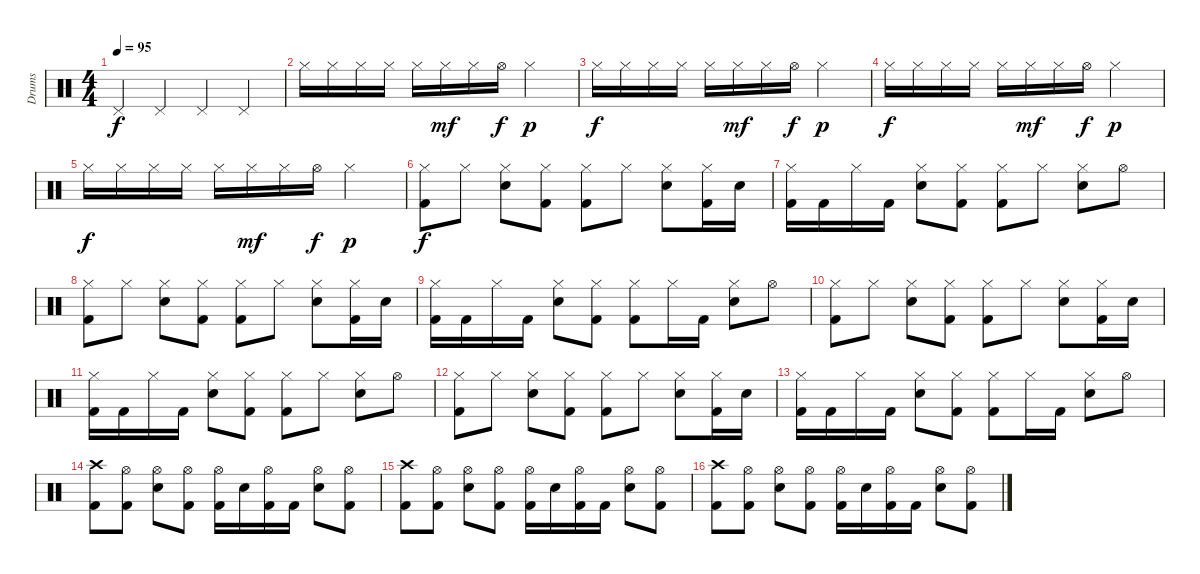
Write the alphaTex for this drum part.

\track ("Drums" "Drums") {instrument percussion}
\staff {score}
\articulation defaults
\ts (4 4)
\tempo 95
\clef neutral
\ks c "Pedal Hi-Hat (hit)".4{dy f} "Pedal Hi-Hat (hit)".4 "Pedal Hi-Hat (hit)".4 "Pedal Hi-Hat (hit)".4
|
"Hi-Hat (closed)".16 "Hi-Hat (closed)".16 "Hi-Hat (closed)".16 "Hi-Hat (closed)".16 "Hi-Hat (closed)".16 "Hi-Hat (closed)".16{dy mf} "Hi-Hat (closed)".16 "Hi-Hat (open)".16{dy f} "Hi-Hat (closed)".2{dy p} |
"Hi-Hat (closed)".16{dy f} "Hi-Hat (closed)".16 "Hi-Hat (closed)".16 "Hi-Hat (closed)".16 "Hi-Hat (closed)".16 "Hi-Hat (closed)".16{dy mf} "Hi-Hat (closed)".16 "Hi-Hat (open)".16{dy f} "Hi-Hat (closed)".2{dy p} |
"Hi-Hat (closed)".16{dy f} "Hi-Hat (closed)".16 "Hi-Hat (closed)".16 "Hi-Hat (closed)".16 "Hi-Hat (closed)".16 "Hi-Hat (closed)".16{dy mf} "Hi-Hat (closed)".16 "Hi-Hat (open)".16{dy f} "Hi-Hat (closed)".2{dy p} |
"Hi-Hat (closed)".16{dy f} "Hi-Hat (closed)".16 "Hi-Hat (closed)".16 "Hi-Hat (closed)".16 "Hi-Hat (closed)".16 "Hi-Hat (closed)".16{dy mf} "Hi-Hat (closed)".16 "Hi-Hat (open)".16{dy f} "Hi-Hat (closed)".2{dy p} |
("Hi-Hat (closed)" "Kick (hit) 2").8{dy f} "Hi-Hat (closed)".8 ("Hi-Hat (closed)" "Electric Snare (hit)").8 ("Hi-Hat (closed)" "Kick (hit) 2").8 ("Hi-Hat (closed)" "Kick (hit) 2").8 "Hi-Hat (closed)".8 ("Hi-Hat (closed)" "Electric Snare (hit)").8 ("Hi-Hat (closed)" "Kick (hit) 2").16 "Electric Snare (hit)".16 |
("Hi-Hat (closed)" "Kick (hit) 2").16 "Kick (hit) 2".16 "Hi-Hat (closed)".16 "Kick (hit) 2".16 ("Hi-Hat (closed)" "Electric Snare (hit)").8 ("Hi-Hat (closed)" "Kick (hit) 2").8 ("Hi-Hat (closed)" "Kick (hit) 2").8 "Hi-Hat (closed)".8 ("Hi-Hat (closed)" "Electric Snare (hit)").8 "Hi-Hat (open)".8 |
("Hi-Hat (closed)" "Kick (hit) 2").8 "Hi-Hat (closed)".8 ("Hi-Hat (closed)" "Electric Snare (hit)").8 ("Hi-Hat (closed)" "Kick (hit) 2").8 ("Hi-Hat (closed)" "Kick (hit) 2").8 "Hi-Hat (closed)".8 ("Hi-Hat (closed)" "Electric Snare (hit)").8 ("Hi-Hat (closed)" "Kick (hit) 2").16 "Electric Snare (hit)".16 |
("Hi-Hat (closed)" "Kick (hit) 2").16 "Kick (hit) 2".16 "Hi-Hat (closed)".16 "Kick (hit) 2".16 ("Hi-Hat (closed)" "Electric Snare (hit)").8 ("Hi-Hat (closed)" "Kick (hit) 2").8 ("Hi-Hat (closed)" "Kick (hit) 2").8 "Hi-Hat (closed)".16 "Kick (hit) 2".16 ("Hi-Hat (closed)" "Electric Snare (hit)").8 "Hi-Hat (open)".8 |
("Hi-Hat (closed)" "Kick (hit) 2").8 "Hi-Hat (closed)".8 ("Hi-Hat (closed)" "Electric Snare (hit)").8 ("Hi-Hat (closed)" "Kick (hit) 2").8 ("Hi-Hat (closed)" "Kick (hit) 2").8 "Hi-Hat (closed)".8 ("Hi-Hat (closed)" "Electric Snare (hit)").8 ("Hi-Hat (closed)" "Kick (hit) 2").16 "Electric Snare (hit)".16 |
("Hi-Hat (closed)" "Kick (hit) 2").16 "Kick (hit) 2".16 "Hi-Hat (closed)".16 "Kick (hit) 2".16 ("Hi-Hat (closed)" "Electric Snare (hit)").8 ("Hi-Hat (closed)" "Kick (hit) 2").8 ("Hi-Hat (closed)" "Kick (hit) 2").8 "Hi-Hat (closed)".8 ("Hi-Hat (closed)" "Electric Snare (hit)").8 "Hi-Hat (open)".8 |
("Hi-Hat (closed)" "Kick (hit) 2").8 "Hi-Hat (closed)".8 ("Hi-Hat (closed)" "Electric Snare (hit)").8 ("Hi-Hat (closed)" "Kick (hit) 2").8 ("Hi-Hat (closed)" "Kick (hit) 2").8 "Hi-Hat (closed)".8 ("Hi-Hat (closed)" "Electric Snare (hit)").8 ("Hi-Hat (closed)" "Kick (hit) 2").16 "Electric Snare (hit)".16 |
("Hi-Hat (closed)" "Kick (hit) 2").16 "Kick (hit) 2".16 "Hi-Hat (closed)".16 "Kick (hit) 2".16 ("Hi-Hat (closed)" "Electric Snare (hit)").8 ("Hi-Hat (closed)" "Kick (hit) 2").8 ("Hi-Hat (closed)" "Kick (hit) 2").8 "Hi-Hat (closed)".16 "Kick (hit) 2".16 ("Hi-Hat (closed)" "Electric Snare (hit)").8 "Hi-Hat (open)".8 |
("Crash high (hit)" "Kick (hit) 2").8 ("Hi-Hat (open)" "Kick (hit) 2").8 ("Hi-Hat (open)" "Electric Snare (hit)").8 ("Hi-Hat (open)" "Kick (hit) 2").8 ("Hi-Hat (open)" "Kick (hit) 2").16 "Electric Snare (hit)".16 ("Hi-Hat (open)" "Kick (hit) 2").16 "Kick (hit) 2".16 ("Hi-Hat (open)" "Electric Snare (hit)").8 ("Hi-Hat (open)" "Kick (hit) 2").8 |
("Crash high (hit)" "Kick (hit) 2").8 ("Hi-Hat (open)" "Kick (hit) 2").8 ("Hi-Hat (open)" "Electric Snare (hit)").8 ("Hi-Hat (open)" "Kick (hit) 2").8 ("Hi-Hat (open)" "Kick (hit) 2").16 "Electric Snare (hit)".16 ("Hi-Hat (open)" "Kick (hit) 2").16 "Kick (hit) 2".16 ("Hi-Hat (open)" "Electric Snare (hit)").8 ("Hi-Hat (open)" "Kick (hit) 2").8 |
("Crash high (hit)" "Kick (hit) 2").8 ("Hi-Hat (open)" "Kick (hit) 2").8 ("Hi-Hat (open)" "Electric Snare (hit)").8 ("Hi-Hat (open)" "Kick (hit) 2").8 ("Hi-Hat (open)" "Kick (hit) 2").16 "Electric Snare (hit)".16 ("Hi-Hat (open)" "Kick (hit) 2").16 "Kick (hit) 2".16 ("Hi-Hat (open)" "Electric Snare (hit)").8 ("Hi-Hat (open)" "Kick (hit) 2").8
